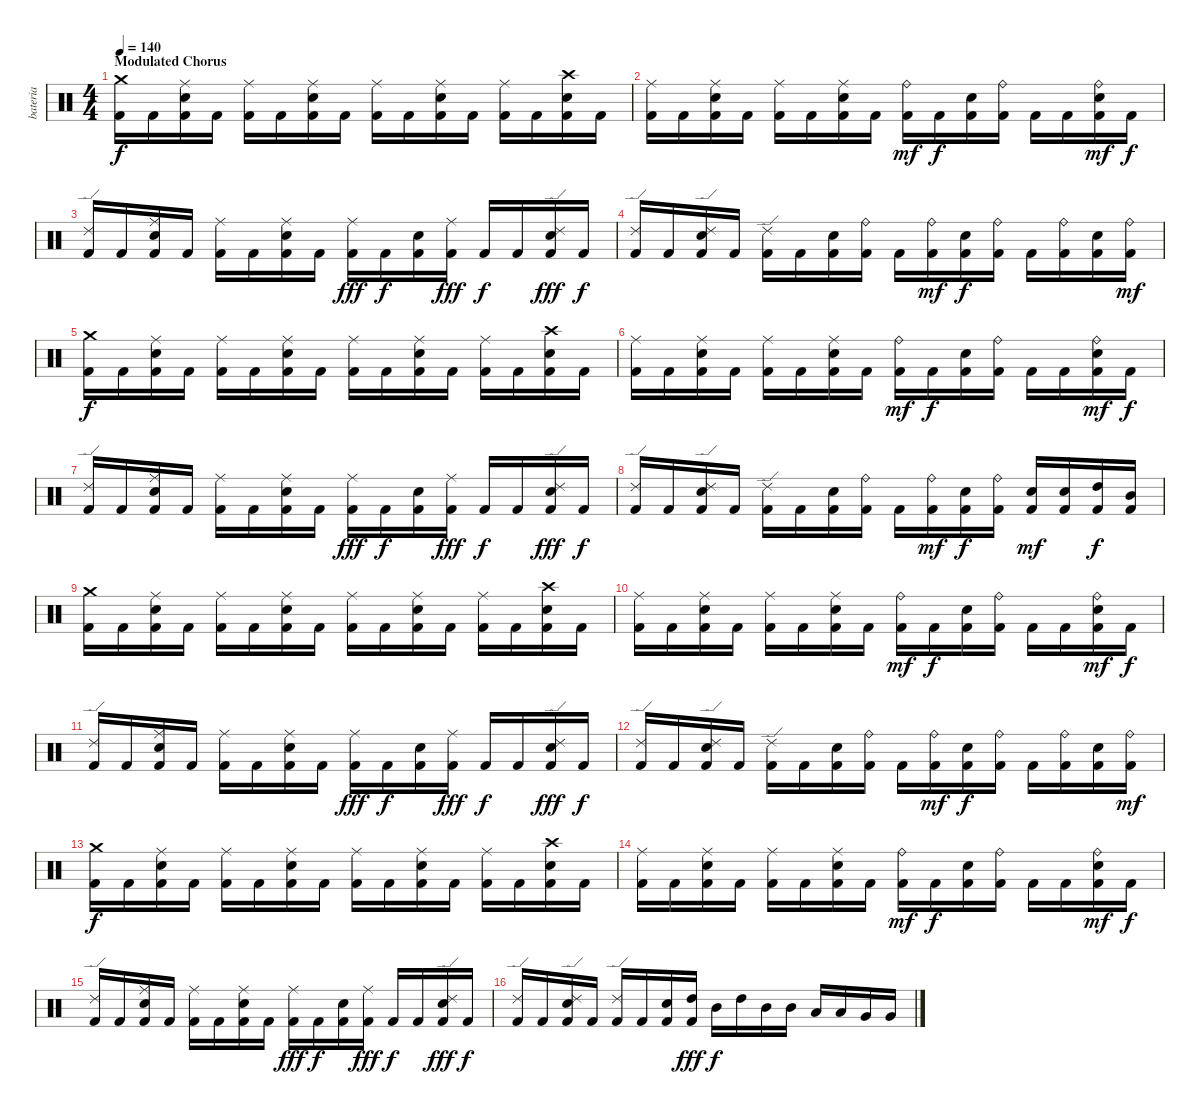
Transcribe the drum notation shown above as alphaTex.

\track ("bateria" "bateria") {instrument percussion}
\staff {score}
\articulation defaults
\ts (4 4)
\section ("" "Modulated Chorus")
\tempo 140
\clef neutral
\ks c
("Crash medium (hit)" "Kick (hit) 2").16{dy f} "Kick (hit) 2".16 ("Ride (middle)" "Electric Snare (hit)" "Kick (hit) 2").16 "Kick (hit) 2".16 ("Ride (middle)" "Kick (hit) 2").16 "Kick (hit) 2".16 ("Ride (middle)" "Electric Snare (hit)" "Kick (hit) 2").16 "Kick (hit) 2".16 ("Ride (middle)" "Kick (hit) 2").16 "Kick (hit) 2".16 ("Ride (middle)" "Electric Snare (hit)" "Kick (hit) 2").16 "Kick (hit) 2".16 ("Ride (middle)" "Kick (hit) 2").16 "Kick (hit) 2".16 ("Crash high (hit)" "Electric Snare (hit)" "Kick (hit) 2").16 "Kick (hit) 2".16 |
("Ride (middle)" "Kick (hit) 2").16 "Kick (hit) 2".16 ("Ride (middle)" "Electric Snare (hit)" "Kick (hit) 2").16 "Kick (hit) 2".16 ("Ride (middle)" "Kick (hit) 2").16 "Kick (hit) 2".16 ("Ride (middle)" "Electric Snare (hit)" "Kick (hit) 2").16 "Kick (hit) 2".16 ("Ride (bell)" "Kick (hit) 2").16{dy mf} "Kick (hit) 2".16{dy f} ("Electric Snare (hit)" "Kick (hit) 2").16 ("Ride (bell)" "Kick (hit) 2").16 "Kick (hit) 2".16 "Kick (hit) 2".16 ("Ride (bell)" "Electric Snare (hit)" "Kick (hit) 2").16{dy mf} "Kick (hit) 2".16{dy f} |
("Ride (edge) 2" "Kick (hit) 2").16 "Kick (hit) 2".16 ("Ride (middle)" "Electric Snare (hit)" "Kick (hit) 2").16 "Kick (hit) 2".16 ("Ride (middle)" "Kick (hit) 2").16 "Kick (hit) 2".16 ("Ride (middle)" "Electric Snare (hit)" "Kick (hit) 2").16 "Kick (hit) 2".16 ("Ride (middle)" "Kick (hit) 2").16{dy fff} "Kick (hit) 2".16{dy f} ("Electric Snare (hit)" "Kick (hit) 2").16 ("Ride (middle)" "Kick (hit) 2").16{dy fff} "Kick (hit) 2".16{dy f} "Kick (hit) 2".16 ("Ride (edge) 2" "Electric Snare (hit)" "Kick (hit) 2").16{dy fff} "Kick (hit) 2".16{dy f} |
("Ride (edge) 2" "Kick (hit) 2").16 "Kick (hit) 2".16 ("Ride (edge) 2" "Electric Snare (hit)" "Kick (hit) 2").16 "Kick (hit) 2".16 ("Ride (edge) 2" "Kick (hit) 2").16 "Kick (hit) 2".16 ("Electric Snare (hit)" "Kick (hit) 2").16 ("Ride (bell)" "Kick (hit) 2").16 "Kick (hit) 2".16 ("Ride (bell)" "Kick (hit) 2").16{dy mf} ("Electric Snare (hit)" "Kick (hit) 2").16{dy f} ("Ride (bell)" "Kick (hit) 2").16 "Kick (hit) 2".16 ("Ride (bell)" "Kick (hit) 2").16 ("Electric Snare (hit)" "Kick (hit) 2").16 ("Ride (bell)" "Kick (hit) 2").16{dy mf} |
("Crash medium (hit)" "Kick (hit) 2").16{dy f} "Kick (hit) 2".16 ("Ride (middle)" "Electric Snare (hit)" "Kick (hit) 2").16 "Kick (hit) 2".16 ("Ride (middle)" "Kick (hit) 2").16 "Kick (hit) 2".16 ("Ride (middle)" "Electric Snare (hit)" "Kick (hit) 2").16 "Kick (hit) 2".16 ("Ride (middle)" "Kick (hit) 2").16 "Kick (hit) 2".16 ("Ride (middle)" "Electric Snare (hit)" "Kick (hit) 2").16 "Kick (hit) 2".16 ("Ride (middle)" "Kick (hit) 2").16 "Kick (hit) 2".16 ("Crash high (hit)" "Electric Snare (hit)" "Kick (hit) 2").16 "Kick (hit) 2".16 |
("Ride (middle)" "Kick (hit) 2").16 "Kick (hit) 2".16 ("Ride (middle)" "Electric Snare (hit)" "Kick (hit) 2").16 "Kick (hit) 2".16 ("Ride (middle)" "Kick (hit) 2").16 "Kick (hit) 2".16 ("Ride (middle)" "Electric Snare (hit)" "Kick (hit) 2").16 "Kick (hit) 2".16 ("Ride (bell)" "Kick (hit) 2").16{dy mf} "Kick (hit) 2".16{dy f} ("Electric Snare (hit)" "Kick (hit) 2").16 ("Ride (bell)" "Kick (hit) 2").16 "Kick (hit) 2".16 "Kick (hit) 2".16 ("Ride (bell)" "Electric Snare (hit)" "Kick (hit) 2").16{dy mf} "Kick (hit) 2".16{dy f} |
("Ride (edge) 2" "Kick (hit) 2").16 "Kick (hit) 2".16 ("Ride (middle)" "Electric Snare (hit)" "Kick (hit) 2").16 "Kick (hit) 2".16 ("Ride (middle)" "Kick (hit) 2").16 "Kick (hit) 2".16 ("Ride (middle)" "Electric Snare (hit)" "Kick (hit) 2").16 "Kick (hit) 2".16 ("Ride (middle)" "Kick (hit) 2").16{dy fff} "Kick (hit) 2".16{dy f} ("Electric Snare (hit)" "Kick (hit) 2").16 ("Ride (middle)" "Kick (hit) 2").16{dy fff} "Kick (hit) 2".16{dy f} "Kick (hit) 2".16 ("Ride (edge) 2" "Electric Snare (hit)" "Kick (hit) 2").16{dy fff} "Kick (hit) 2".16{dy f} |
("Ride (edge) 2" "Kick (hit) 2").16 "Kick (hit) 2".16 ("Ride (edge) 2" "Electric Snare (hit)" "Kick (hit) 2").16 "Kick (hit) 2".16 ("Ride (edge) 2" "Kick (hit) 2").16 "Kick (hit) 2".16 ("Electric Snare (hit)" "Kick (hit) 2").16 ("Ride (bell)" "Kick (hit) 2").16 "Kick (hit) 2".16 ("Ride (bell)" "Kick (hit) 2").16{dy mf} ("Electric Snare (hit)" "Kick (hit) 2").16{dy f} ("Ride (bell)" "Kick (hit) 2").16 ("Electric Snare (hit)" "Kick (hit) 2").16{dy mf} ("Electric Snare (hit)" "Kick (hit) 2").16 ("High Tom (hit)" "Kick (hit) 2").16{dy f} ("Mid Tom (hit)" "Kick (hit) 2").16 |
("Crash medium (hit)" "Kick (hit) 2").16 "Kick (hit) 2".16 ("Ride (middle)" "Electric Snare (hit)" "Kick (hit) 2").16 "Kick (hit) 2".16 ("Ride (middle)" "Kick (hit) 2").16 "Kick (hit) 2".16 ("Ride (middle)" "Electric Snare (hit)" "Kick (hit) 2").16 "Kick (hit) 2".16 ("Ride (middle)" "Kick (hit) 2").16 "Kick (hit) 2".16 ("Ride (middle)" "Electric Snare (hit)" "Kick (hit) 2").16 "Kick (hit) 2".16 ("Ride (middle)" "Kick (hit) 2").16 "Kick (hit) 2".16 ("Crash high (hit)" "Electric Snare (hit)" "Kick (hit) 2").16 "Kick (hit) 2".16 |
("Ride (middle)" "Kick (hit) 2").16 "Kick (hit) 2".16 ("Ride (middle)" "Electric Snare (hit)" "Kick (hit) 2").16 "Kick (hit) 2".16 ("Ride (middle)" "Kick (hit) 2").16 "Kick (hit) 2".16 ("Ride (middle)" "Electric Snare (hit)" "Kick (hit) 2").16 "Kick (hit) 2".16 ("Ride (bell)" "Kick (hit) 2").16{dy mf} "Kick (hit) 2".16{dy f} ("Electric Snare (hit)" "Kick (hit) 2").16 ("Ride (bell)" "Kick (hit) 2").16 "Kick (hit) 2".16 "Kick (hit) 2".16 ("Ride (bell)" "Electric Snare (hit)" "Kick (hit) 2").16{dy mf} "Kick (hit) 2".16{dy f} |
("Ride (edge) 2" "Kick (hit) 2").16 "Kick (hit) 2".16 ("Ride (middle)" "Electric Snare (hit)" "Kick (hit) 2").16 "Kick (hit) 2".16 ("Ride (middle)" "Kick (hit) 2").16 "Kick (hit) 2".16 ("Ride (middle)" "Electric Snare (hit)" "Kick (hit) 2").16 "Kick (hit) 2".16 ("Ride (middle)" "Kick (hit) 2").16{dy fff} "Kick (hit) 2".16{dy f} ("Electric Snare (hit)" "Kick (hit) 2").16 ("Ride (middle)" "Kick (hit) 2").16{dy fff} "Kick (hit) 2".16{dy f} "Kick (hit) 2".16 ("Ride (edge) 2" "Electric Snare (hit)" "Kick (hit) 2").16{dy fff} "Kick (hit) 2".16{dy f} |
("Ride (edge) 2" "Kick (hit) 2").16 "Kick (hit) 2".16 ("Ride (edge) 2" "Electric Snare (hit)" "Kick (hit) 2").16 "Kick (hit) 2".16 ("Ride (edge) 2" "Kick (hit) 2").16 "Kick (hit) 2".16 ("Electric Snare (hit)" "Kick (hit) 2").16 ("Ride (bell)" "Kick (hit) 2").16 "Kick (hit) 2".16 ("Ride (bell)" "Kick (hit) 2").16{dy mf} ("Electric Snare (hit)" "Kick (hit) 2").16{dy f} ("Ride (bell)" "Kick (hit) 2").16 "Kick (hit) 2".16 ("Ride (bell)" "Kick (hit) 2").16 ("Electric Snare (hit)" "Kick (hit) 2").16 ("Ride (bell)" "Kick (hit) 2").16{dy mf} |
("Crash medium (hit)" "Kick (hit) 2").16{dy f} "Kick (hit) 2".16 ("Ride (middle)" "Electric Snare (hit)" "Kick (hit) 2").16 "Kick (hit) 2".16 ("Ride (middle)" "Kick (hit) 2").16 "Kick (hit) 2".16 ("Ride (middle)" "Electric Snare (hit)" "Kick (hit) 2").16 "Kick (hit) 2".16 ("Ride (middle)" "Kick (hit) 2").16 "Kick (hit) 2".16 ("Ride (middle)" "Electric Snare (hit)" "Kick (hit) 2").16 "Kick (hit) 2".16 ("Ride (middle)" "Kick (hit) 2").16 "Kick (hit) 2".16 ("Crash high (hit)" "Electric Snare (hit)" "Kick (hit) 2").16 "Kick (hit) 2".16 |
("Ride (middle)" "Kick (hit) 2").16 "Kick (hit) 2".16 ("Ride (middle)" "Electric Snare (hit)" "Kick (hit) 2").16 "Kick (hit) 2".16 ("Ride (middle)" "Kick (hit) 2").16 "Kick (hit) 2".16 ("Ride (middle)" "Electric Snare (hit)" "Kick (hit) 2").16 "Kick (hit) 2".16 ("Ride (bell)" "Kick (hit) 2").16{dy mf} "Kick (hit) 2".16{dy f} ("Electric Snare (hit)" "Kick (hit) 2").16 ("Ride (bell)" "Kick (hit) 2").16 "Kick (hit) 2".16 "Kick (hit) 2".16 ("Ride (bell)" "Electric Snare (hit)" "Kick (hit) 2").16{dy mf} "Kick (hit) 2".16{dy f} |
("Ride (edge) 2" "Kick (hit) 2").16 "Kick (hit) 2".16 ("Ride (middle)" "Electric Snare (hit)" "Kick (hit) 2").16 "Kick (hit) 2".16 ("Ride (middle)" "Kick (hit) 2").16 "Kick (hit) 2".16 ("Ride (middle)" "Electric Snare (hit)" "Kick (hit) 2").16 "Kick (hit) 2".16 ("Ride (middle)" "Kick (hit) 2").16{dy fff} "Kick (hit) 2".16{dy f} ("Electric Snare (hit)" "Kick (hit) 2").16 ("Ride (middle)" "Kick (hit) 2").16{dy fff} "Kick (hit) 2".16{dy f} "Kick (hit) 2".16 ("Ride (edge) 2" "Electric Snare (hit)" "Kick (hit) 2").16{dy fff} "Kick (hit) 2".16{dy f} |
("Ride (edge) 2" "Kick (hit) 2").16 "Kick (hit) 2".16 ("Ride (edge) 2" "Electric Snare (hit)" "Kick (hit) 2").16 "Kick (hit) 2".16 ("Ride (edge) 2" "Kick (hit) 2").16 "Kick (hit) 2".16 ("Electric Snare (hit)" "Kick (hit) 2").16 ("High Tom (hit)" "Kick (hit) 2").16{dy fff} "Mid Tom (hit)".16{dy f} "High Tom (hit)".16 "Mid Tom (hit)".16 "Mid Tom (hit)".16 "Low Tom (hit)".16 "Low Tom (hit)".16 "Very Low Tom (hit)".16 "Very Low Tom (hit)".16
